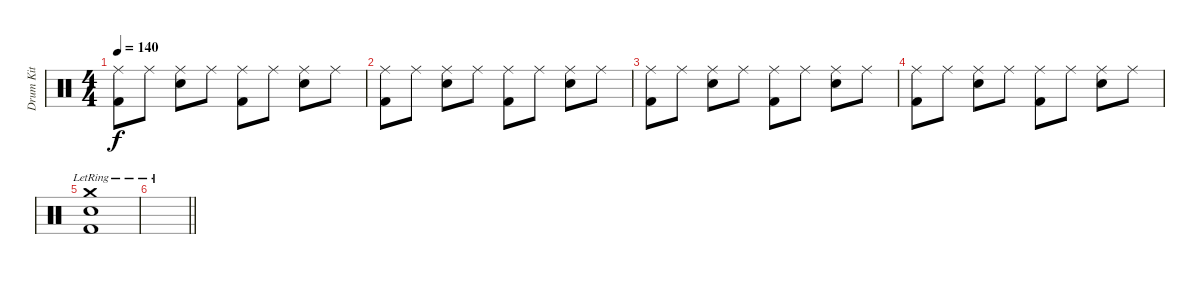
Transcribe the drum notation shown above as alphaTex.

\track ("Drum Kit" "Drum Kit") {instrument percussion}
\staff {score}
\articulation defaults
\ts (4 4)
\tempo 140
\clef neutral
\ks c
("Ride (middle)" "Kick (hit) 2").8{dy f} "Ride (middle)".8 ("Ride (middle)" "Snare (hit) 2").8 "Ride (middle)".8 ("Ride (middle)" "Kick (hit) 2").8 "Ride (middle)".8 ("Ride (middle)" "Snare (hit) 2").8 "Ride (middle)".8 |
("Ride (middle)" "Kick (hit) 2").8 "Ride (middle)".8 ("Ride (middle)" "Snare (hit) 2").8 "Ride (middle)".8 ("Ride (middle)" "Kick (hit) 2").8 "Ride (middle)".8 ("Ride (middle)" "Snare (hit) 2").8 "Ride (middle)".8 |
("Ride (middle)" "Kick (hit) 2").8 "Ride (middle)".8 ("Ride (middle)" "Snare (hit) 2").8 "Ride (middle)".8 ("Ride (middle)" "Kick (hit) 2").8 "Ride (middle)".8 ("Ride (middle)" "Snare (hit) 2").8 "Ride (middle)".8 |
("Ride (middle)" "Kick (hit) 2").8 "Ride (middle)".8 ("Ride (middle)" "Snare (hit) 2").8 "Ride (middle)".8 ("Ride (middle)" "Kick (hit) 2").8 "Ride (middle)".8 ("Ride (middle)" "Snare (hit) 2").8 "Ride (middle)".8 |
("Crash medium (hit)"{lr} "Snare (hit) 2"{lr} "Kick (hit) 2"{lr}).1 |
\barLineRight lightlight
